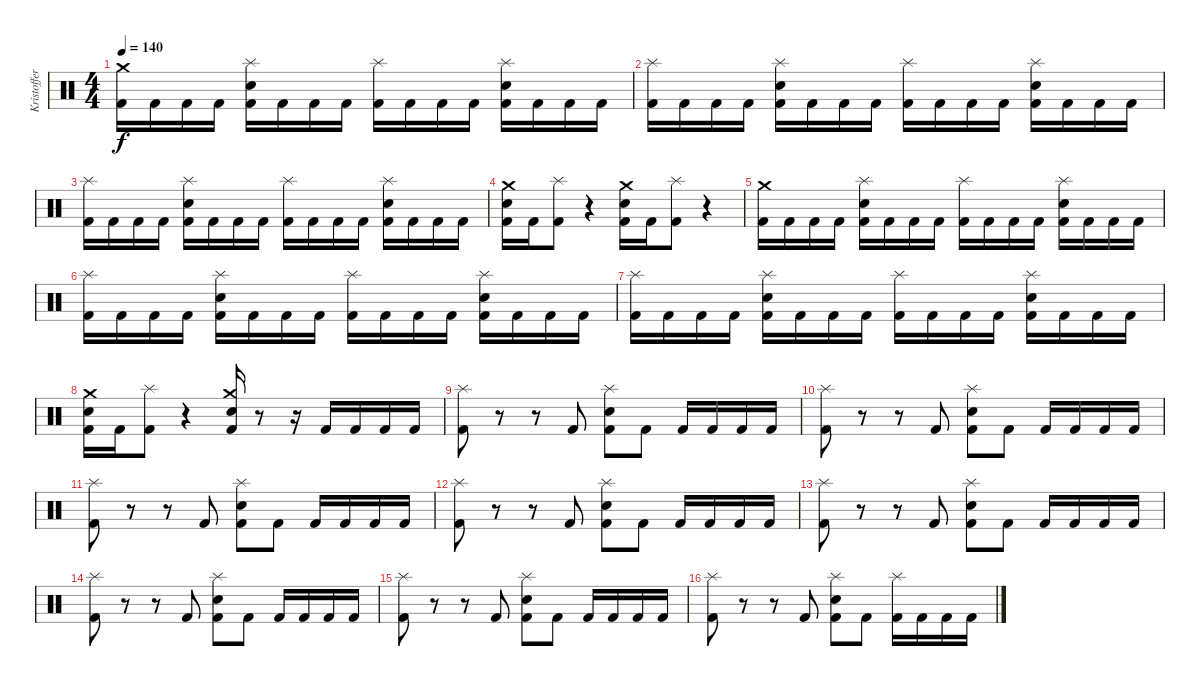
\track ("Kristoffer (Drums)" "Kristoffer") {instrument percussion}
\staff {score}
\articulation defaults
\ts (4 4)
\tempo 140
\clef neutral
\ks c
("Kick (hit) 2" "Crash medium (hit)").16{dy f} "Kick (hit) 2".16 "Kick (hit) 2".16 "Kick (hit) 2".16 ("Kick (hit) 2" "Electric Snare (hit)" "Splash (hit)").16 "Kick (hit) 2".16 "Kick (hit) 2".16 "Kick (hit) 2".16 ("Kick (hit) 2" "Splash (hit)").16 "Kick (hit) 2".16 "Kick (hit) 2".16 "Kick (hit) 2".16 ("Kick (hit) 2" "Electric Snare (hit)" "Splash (hit)").16 "Kick (hit) 2".16 "Kick (hit) 2".16 "Kick (hit) 2".16 |
("Kick (hit) 2" "Splash (hit)").16 "Kick (hit) 2".16 "Kick (hit) 2".16 "Kick (hit) 2".16 ("Kick (hit) 2" "Electric Snare (hit)" "Splash (hit)").16 "Kick (hit) 2".16 "Kick (hit) 2".16 "Kick (hit) 2".16 ("Kick (hit) 2" "Splash (hit)").16 "Kick (hit) 2".16 "Kick (hit) 2".16 "Kick (hit) 2".16 ("Kick (hit) 2" "Electric Snare (hit)" "Splash (hit)").16 "Kick (hit) 2".16 "Kick (hit) 2".16 "Kick (hit) 2".16 |
("Kick (hit) 2" "Splash (hit)").16 "Kick (hit) 2".16 "Kick (hit) 2".16 "Kick (hit) 2".16 ("Kick (hit) 2" "Electric Snare (hit)" "Splash (hit)").16 "Kick (hit) 2".16 "Kick (hit) 2".16 "Kick (hit) 2".16 ("Kick (hit) 2" "Splash (hit)").16 "Kick (hit) 2".16 "Kick (hit) 2".16 "Kick (hit) 2".16 ("Kick (hit) 2" "Electric Snare (hit)" "Splash (hit)").16 "Kick (hit) 2".16 "Kick (hit) 2".16 "Kick (hit) 2".16 |
("Kick (hit) 2" "Electric Snare (hit)" "Crash medium (hit)").16 "Kick (hit) 2".16 ("Kick (hit) 2" "Splash (hit)").8 r.4 ("Kick (hit) 2" "Electric Snare (hit)" "Crash medium (hit)").16 "Kick (hit) 2".16 ("Kick (hit) 2" "Splash (hit)").8 r.4 |
("Kick (hit) 2" "Crash medium (hit)").16 "Kick (hit) 2".16 "Kick (hit) 2".16 "Kick (hit) 2".16 ("Kick (hit) 2" "Electric Snare (hit)" "Splash (hit)").16 "Kick (hit) 2".16 "Kick (hit) 2".16 "Kick (hit) 2".16 ("Kick (hit) 2" "Splash (hit)").16 "Kick (hit) 2".16 "Kick (hit) 2".16 "Kick (hit) 2".16 ("Kick (hit) 2" "Electric Snare (hit)" "Splash (hit)").16 "Kick (hit) 2".16 "Kick (hit) 2".16 "Kick (hit) 2".16 |
("Kick (hit) 2" "Splash (hit)").16 "Kick (hit) 2".16 "Kick (hit) 2".16 "Kick (hit) 2".16 ("Kick (hit) 2" "Electric Snare (hit)" "Splash (hit)").16 "Kick (hit) 2".16 "Kick (hit) 2".16 "Kick (hit) 2".16 ("Kick (hit) 2" "Splash (hit)").16 "Kick (hit) 2".16 "Kick (hit) 2".16 "Kick (hit) 2".16 ("Kick (hit) 2" "Electric Snare (hit)" "Splash (hit)").16 "Kick (hit) 2".16 "Kick (hit) 2".16 "Kick (hit) 2".16 |
("Kick (hit) 2" "Splash (hit)").16 "Kick (hit) 2".16 "Kick (hit) 2".16 "Kick (hit) 2".16 ("Kick (hit) 2" "Electric Snare (hit)" "Splash (hit)").16 "Kick (hit) 2".16 "Kick (hit) 2".16 "Kick (hit) 2".16 ("Kick (hit) 2" "Splash (hit)").16 "Kick (hit) 2".16 "Kick (hit) 2".16 "Kick (hit) 2".16 ("Kick (hit) 2" "Electric Snare (hit)" "Splash (hit)").16 "Kick (hit) 2".16 "Kick (hit) 2".16 "Kick (hit) 2".16 |
("Kick (hit) 2" "Electric Snare (hit)" "Crash medium (hit)").16 "Kick (hit) 2".16 ("Kick (hit) 2" "Splash (hit)").8 r.4 ("Kick (hit) 2" "Electric Snare (hit)" "Crash medium (hit)").16 r.8 r.16 "Kick (hit) 2".16 "Kick (hit) 2".16 "Kick (hit) 2".16 "Kick (hit) 2".16 |
("Kick (hit) 2" "Splash (hit)").8 r.8 r.8 "Kick (hit) 2".8 ("Kick (hit) 2" "Electric Snare (hit)" "Splash (hit)").8 "Kick (hit) 2".8 "Kick (hit) 2".16 "Kick (hit) 2".16 "Kick (hit) 2".16 "Kick (hit) 2".16 |
("Kick (hit) 2" "Splash (hit)").8 r.8 r.8 "Kick (hit) 2".8 ("Kick (hit) 2" "Electric Snare (hit)" "Splash (hit)").8 "Kick (hit) 2".8 "Kick (hit) 2".16 "Kick (hit) 2".16 "Kick (hit) 2".16 "Kick (hit) 2".16 |
("Kick (hit) 2" "Splash (hit)").8 r.8 r.8 "Kick (hit) 2".8 ("Kick (hit) 2" "Electric Snare (hit)" "Splash (hit)").8 "Kick (hit) 2".8 "Kick (hit) 2".16 "Kick (hit) 2".16 "Kick (hit) 2".16 "Kick (hit) 2".16 |
("Kick (hit) 2" "Splash (hit)").8 r.8 r.8 "Kick (hit) 2".8 ("Kick (hit) 2" "Electric Snare (hit)" "Splash (hit)").8 "Kick (hit) 2".8 "Kick (hit) 2".16 "Kick (hit) 2".16 "Kick (hit) 2".16 "Kick (hit) 2".16 |
("Kick (hit) 2" "Splash (hit)").8 r.8 r.8 "Kick (hit) 2".8 ("Kick (hit) 2" "Electric Snare (hit)" "Splash (hit)").8 "Kick (hit) 2".8 "Kick (hit) 2".16 "Kick (hit) 2".16 "Kick (hit) 2".16 "Kick (hit) 2".16 |
("Kick (hit) 2" "Splash (hit)").8 r.8 r.8 "Kick (hit) 2".8 ("Kick (hit) 2" "Electric Snare (hit)" "Splash (hit)").8 "Kick (hit) 2".8 "Kick (hit) 2".16 "Kick (hit) 2".16 "Kick (hit) 2".16 "Kick (hit) 2".16 |
("Kick (hit) 2" "Splash (hit)").8 r.8 r.8 "Kick (hit) 2".8 ("Kick (hit) 2" "Electric Snare (hit)" "Splash (hit)").8 "Kick (hit) 2".8 "Kick (hit) 2".16 "Kick (hit) 2".16 "Kick (hit) 2".16 "Kick (hit) 2".16 |
("Kick (hit) 2" "Splash (hit)").8 r.8 r.8 "Kick (hit) 2".8 ("Kick (hit) 2" "Electric Snare (hit)" "Splash (hit)").8 "Kick (hit) 2".8 ("Kick (hit) 2" "Splash (hit)").16 "Kick (hit) 2".16 "Kick (hit) 2".16 "Kick (hit) 2".16
